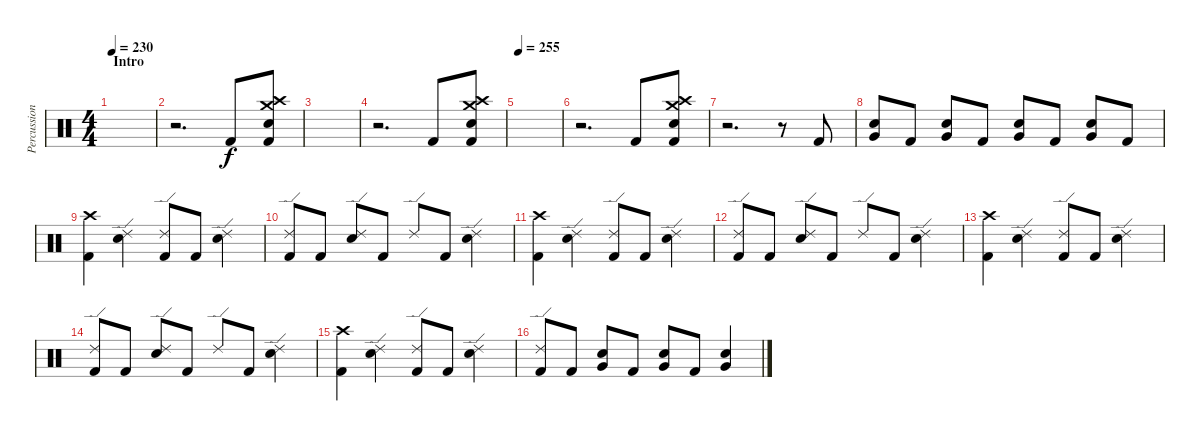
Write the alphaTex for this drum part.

\track ("Percussion" "Percussion") {instrument percussion}
\staff {score}
\articulation defaults
\ts (4 4)
\section ("" "Intro")
\tempo 230
\clef neutral
\ks c
|
r.2{d} "Kick (hit) 2".8 ("Crash high (hit)" "Crash medium (hit)" "Electric Snare (hit)" "Kick (hit) 2").8 |
|
r.2{d} "Kick (hit) 2".8 ("Crash high (hit)" "Crash medium (hit)" "Electric Snare (hit)" "Kick (hit) 2").8 |
\tempo 255
|
r.2{d} "Kick (hit) 2".8 ("Crash high (hit)" "Crash medium (hit)" "Electric Snare (hit)" "Kick (hit) 2").8 |
r.2{d} r.8 "Kick (hit) 2".8 |
("Electric Snare (hit)" "Very Low Tom (hit)").8 "Kick (hit) 2".8 ("Electric Snare (hit)" "Very Low Tom (hit)").8 "Kick (hit) 2".8 ("Electric Snare (hit)" "Very Low Tom (hit)").8 "Kick (hit) 2".8 ("Electric Snare (hit)" "Very Low Tom (hit)").8 "Kick (hit) 2".8 |
("Crash high (hit)" "Kick (hit) 2").4 ("Ride (edge) 2" "Electric Snare (hit)").4 ("Ride (edge) 2" "Kick (hit) 2").8 "Kick (hit) 2".8 ("Ride (edge) 2" "Electric Snare (hit)").4 |
("Ride (edge) 2" "Kick (hit) 2").8 "Kick (hit) 2".8 ("Ride (edge) 2" "Electric Snare (hit)").8 "Kick (hit) 2".8 "Ride (edge) 2".8 "Kick (hit) 2".8 ("Ride (edge) 2" "Electric Snare (hit)").4 |
("Crash high (hit)" "Kick (hit) 2").4 ("Ride (edge) 2" "Electric Snare (hit)").4 ("Ride (edge) 2" "Kick (hit) 2").8 "Kick (hit) 2".8 ("Ride (edge) 2" "Electric Snare (hit)").4 |
("Ride (edge) 2" "Kick (hit) 2").8 "Kick (hit) 2".8 ("Ride (edge) 2" "Electric Snare (hit)").8 "Kick (hit) 2".8 "Ride (edge) 2".8 "Kick (hit) 2".8 ("Ride (edge) 2" "Electric Snare (hit)").4 |
("Crash high (hit)" "Kick (hit) 2").4 ("Ride (edge) 2" "Electric Snare (hit)").4 ("Ride (edge) 2" "Kick (hit) 2").8 "Kick (hit) 2".8 ("Ride (edge) 2" "Electric Snare (hit)").4 |
("Ride (edge) 2" "Kick (hit) 2").8 "Kick (hit) 2".8 ("Ride (edge) 2" "Electric Snare (hit)").8 "Kick (hit) 2".8 "Ride (edge) 2".8 "Kick (hit) 2".8 ("Ride (edge) 2" "Electric Snare (hit)").4 |
("Crash high (hit)" "Kick (hit) 2").4 ("Ride (edge) 2" "Electric Snare (hit)").4 ("Ride (edge) 2" "Kick (hit) 2").8 "Kick (hit) 2".8 ("Ride (edge) 2" "Electric Snare (hit)").4 |
("Ride (edge) 2" "Kick (hit) 2").8 "Kick (hit) 2".8 ("Electric Snare (hit)" "Very Low Tom (hit)").8 "Kick (hit) 2".8 ("Electric Snare (hit)" "Very Low Tom (hit)").8 "Kick (hit) 2".8 ("Electric Snare (hit)" "Very Low Tom (hit)").4
